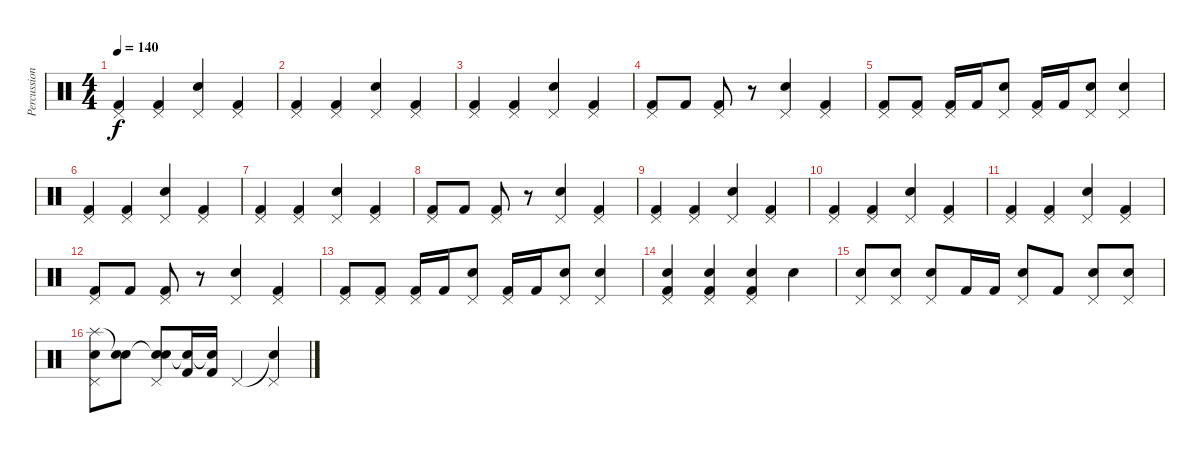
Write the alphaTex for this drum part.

\track ("Percussions" "Percussion") {instrument percussion}
\staff {score}
\articulation defaults
\ts (4 4)
\tempo 140
\clef neutral
\ks c
("Pedal Hi-Hat (hit)" "Kick (hit) 2").4{dy f} ("Pedal Hi-Hat (hit)" "Kick (hit) 2").4 ("Pedal Hi-Hat (hit)" "Electric Snare (hit)").4 ("Pedal Hi-Hat (hit)" "Kick (hit) 2").4 |
("Pedal Hi-Hat (hit)" "Kick (hit) 2").4 ("Pedal Hi-Hat (hit)" "Kick (hit) 2").4 ("Pedal Hi-Hat (hit)" "Electric Snare (hit)").4 ("Pedal Hi-Hat (hit)" "Kick (hit) 2").4 |
("Pedal Hi-Hat (hit)" "Kick (hit) 2").4 ("Pedal Hi-Hat (hit)" "Kick (hit) 2").4 ("Pedal Hi-Hat (hit)" "Electric Snare (hit)").4 ("Pedal Hi-Hat (hit)" "Kick (hit) 2").4 |
("Pedal Hi-Hat (hit)" "Kick (hit) 2").8 "Kick (hit) 2".8 ("Pedal Hi-Hat (hit)" "Kick (hit) 2").8 r.8 ("Pedal Hi-Hat (hit)" "Electric Snare (hit)").4 ("Pedal Hi-Hat (hit)" "Kick (hit) 2").4 |
("Pedal Hi-Hat (hit)" "Kick (hit) 2").8 ("Pedal Hi-Hat (hit)" "Kick (hit) 2").8 ("Pedal Hi-Hat (hit)" "Kick (hit) 2").16 "Kick (hit) 2".16 ("Pedal Hi-Hat (hit)" "Electric Snare (hit)").8 ("Pedal Hi-Hat (hit)" "Kick (hit) 2").16 "Kick (hit) 2".16 ("Pedal Hi-Hat (hit)" "Electric Snare (hit)").8 ("Pedal Hi-Hat (hit)" "Snare (hit) 2").4 |
("Pedal Hi-Hat (hit)" "Kick (hit) 2").4 ("Pedal Hi-Hat (hit)" "Kick (hit) 2").4 ("Pedal Hi-Hat (hit)" "Electric Snare (hit)").4 ("Pedal Hi-Hat (hit)" "Kick (hit) 2").4 |
("Pedal Hi-Hat (hit)" "Kick (hit) 2").4 ("Pedal Hi-Hat (hit)" "Kick (hit) 2").4 ("Pedal Hi-Hat (hit)" "Electric Snare (hit)").4 ("Pedal Hi-Hat (hit)" "Kick (hit) 2").4 |
("Pedal Hi-Hat (hit)" "Kick (hit) 2").8 "Kick (hit) 2".8 ("Pedal Hi-Hat (hit)" "Kick (hit) 2").8 r.8 ("Pedal Hi-Hat (hit)" "Electric Snare (hit)").4 ("Pedal Hi-Hat (hit)" "Kick (hit) 2").4 |
("Pedal Hi-Hat (hit)" "Kick (hit) 2").4 ("Pedal Hi-Hat (hit)" "Kick (hit) 2").4 ("Pedal Hi-Hat (hit)" "Electric Snare (hit)").4 ("Pedal Hi-Hat (hit)" "Kick (hit) 2").4 |
("Pedal Hi-Hat (hit)" "Kick (hit) 2").4 ("Pedal Hi-Hat (hit)" "Kick (hit) 2").4 ("Pedal Hi-Hat (hit)" "Electric Snare (hit)").4 ("Pedal Hi-Hat (hit)" "Kick (hit) 2").4 |
("Pedal Hi-Hat (hit)" "Kick (hit) 2").4 ("Pedal Hi-Hat (hit)" "Kick (hit) 2").4 ("Pedal Hi-Hat (hit)" "Electric Snare (hit)").4 ("Pedal Hi-Hat (hit)" "Kick (hit) 2").4 |
("Pedal Hi-Hat (hit)" "Kick (hit) 2").8 "Kick (hit) 2".8 ("Pedal Hi-Hat (hit)" "Kick (hit) 2").8 r.8 ("Pedal Hi-Hat (hit)" "Electric Snare (hit)").4 ("Pedal Hi-Hat (hit)" "Kick (hit) 2").4 |
("Pedal Hi-Hat (hit)" "Kick (hit) 2").8 ("Pedal Hi-Hat (hit)" "Kick (hit) 2").8 ("Pedal Hi-Hat (hit)" "Kick (hit) 2").16 "Kick (hit) 2".16 ("Pedal Hi-Hat (hit)" "Electric Snare (hit)").8 ("Pedal Hi-Hat (hit)" "Kick (hit) 2").16 "Kick (hit) 2".16 ("Pedal Hi-Hat (hit)" "Electric Snare (hit)").8 ("Pedal Hi-Hat (hit)" "Snare (hit) 2").4 |
("Pedal Hi-Hat (hit)" "Electric Snare (hit)" "Kick (hit) 2").4 ("Pedal Hi-Hat (hit)" "Electric Snare (hit)" "Kick (hit) 2").4 ("Pedal Hi-Hat (hit)" "Electric Snare (hit)" "Kick (hit) 2").4 "Electric Snare (hit)".4 |
("Pedal Hi-Hat (hit)" "Snare (hit) 2").8 ("Pedal Hi-Hat (hit)" "Electric Snare (hit)").8 ("Pedal Hi-Hat (hit)" "Snare (hit) 2").8 "Kick (hit) 2".16 "Kick (hit) 2".16 ("Pedal Hi-Hat (hit)" "Electric Snare (hit)").8 "Kick (hit) 2".8 ("Pedal Hi-Hat (hit)" "Snare (hit) 2").8 ("Pedal Hi-Hat (hit)" "Electric Snare (hit)").8 |
("Splash (hit)" "Pedal Hi-Hat (hit)" "Snare (hit) 2").8 ("Snare (hit)"{t} "Electric Snare (hit)").8 ("Snare (hit)"{t} "Pedal Hi-Hat (hit)" "Snare (hit) 2").8 ("Snare (hit)"{t} "Kick (hit) 2").16 ("Snare (hit)"{t} "Kick (hit) 2").16 "Pedal Hi-Hat (hit)".4 ("Snare (hit)"{t} "Pedal Hi-Hat (hit)").4
